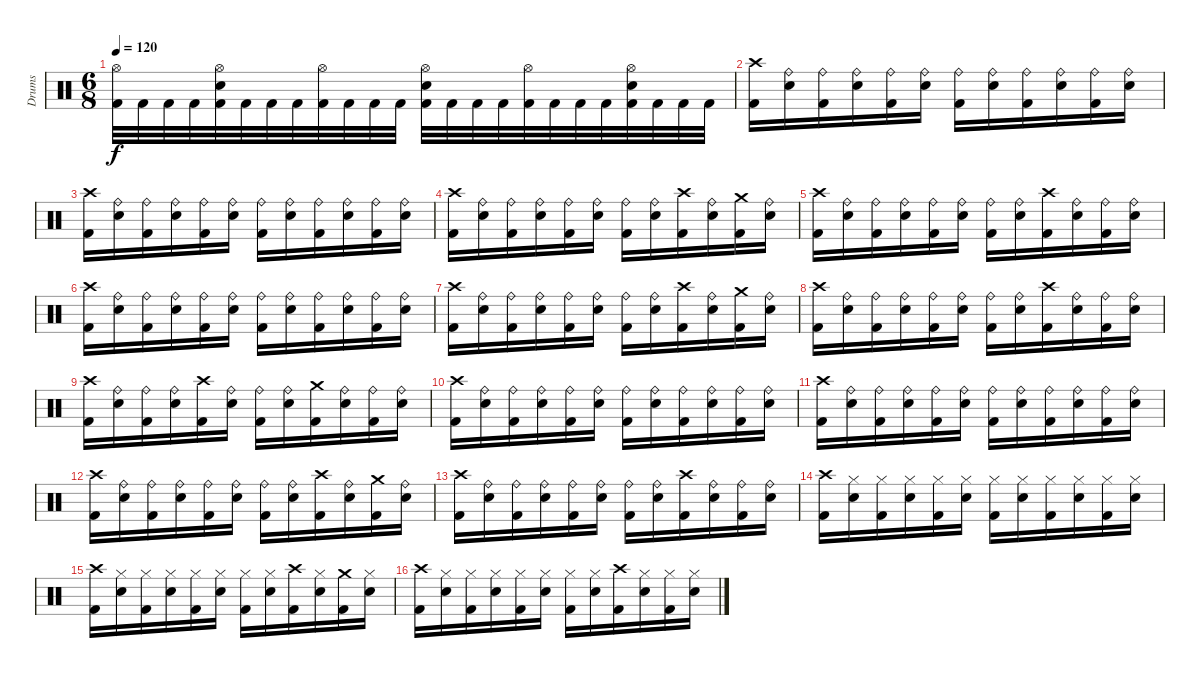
\track ("Drums" "Drums") {instrument percussion}
\staff {score}
\articulation defaults
\ts (6 8)
\tempo 120
\clef neutral
\ks c
("Hi-Hat (open)" "Kick (hit) 2").32{dy f} "Kick (hit) 2".32 "Kick (hit) 2".32 "Kick (hit) 2".32 ("Hi-Hat (open)" "Electric Snare (hit)" "Kick (hit) 2").32 "Kick (hit) 2".32 "Kick (hit) 2".32 "Kick (hit) 2".32 ("Hi-Hat (open)" "Kick (hit) 2").32 "Kick (hit) 2".32 "Kick (hit) 2".32 "Kick (hit) 2".32 ("Hi-Hat (open)" "Electric Snare (hit)" "Kick (hit) 2").32 "Kick (hit) 2".32 "Kick (hit) 2".32 "Kick (hit) 2".32 ("Hi-Hat (open)" "Kick (hit) 2").32 "Kick (hit) 2".32 "Kick (hit) 2".32 "Kick (hit) 2".32 ("Hi-Hat (open)" "Electric Snare (hit)" "Kick (hit) 2").32 "Kick (hit) 2".32 "Kick (hit) 2".32 "Kick (hit) 2".32 |
("Crash high (hit)" "Kick (hit) 2").16 ("Ride (bell)" "Electric Snare (hit)").16 ("Ride (bell)" "Kick (hit) 2").16 ("Ride (bell)" "Electric Snare (hit)").16 ("Ride (bell)" "Kick (hit) 2").16 ("Ride (bell)" "Electric Snare (hit)").16 ("Ride (bell)" "Kick (hit) 2").16 ("Ride (bell)" "Electric Snare (hit)").16 ("Ride (bell)" "Kick (hit) 2").16 ("Ride (bell)" "Electric Snare (hit)").16 ("Ride (bell)" "Kick (hit) 2").16 ("Ride (bell)" "Electric Snare (hit)").16 |
("Crash high (hit)" "Kick (hit) 2").16 ("Ride (bell)" "Electric Snare (hit)").16 ("Ride (bell)" "Kick (hit) 2").16 ("Ride (bell)" "Electric Snare (hit)").16 ("Ride (bell)" "Kick (hit) 2").16 ("Ride (bell)" "Electric Snare (hit)").16 ("Ride (bell)" "Kick (hit) 2").16 ("Ride (bell)" "Electric Snare (hit)").16 ("Ride (bell)" "Kick (hit) 2").16 ("Ride (bell)" "Electric Snare (hit)").16 ("Ride (bell)" "Kick (hit) 2").16 ("Ride (bell)" "Electric Snare (hit)").16 |
("Crash high (hit)" "Kick (hit) 2").16 ("Ride (bell)" "Electric Snare (hit)").16 ("Ride (bell)" "Kick (hit) 2").16 ("Ride (bell)" "Electric Snare (hit)").16 ("Ride (bell)" "Kick (hit) 2").16 ("Ride (bell)" "Electric Snare (hit)").16 ("Ride (bell)" "Kick (hit) 2").16 ("Ride (bell)" "Electric Snare (hit)").16 ("Crash high (hit)" "Kick (hit) 2").16 ("Ride (bell)" "Electric Snare (hit)").16 ("Crash medium (hit)" "Kick (hit) 2").16 ("Ride (bell)" "Electric Snare (hit)").16 |
("Crash high (hit)" "Kick (hit) 2").16 ("Ride (bell)" "Electric Snare (hit)").16 ("Ride (bell)" "Kick (hit) 2").16 ("Ride (bell)" "Electric Snare (hit)").16 ("Ride (bell)" "Kick (hit) 2").16 ("Ride (bell)" "Electric Snare (hit)").16 ("Ride (bell)" "Kick (hit) 2").16 ("Ride (bell)" "Electric Snare (hit)").16 ("Crash high (hit)" "Kick (hit) 2").16 ("Ride (bell)" "Electric Snare (hit)").16 ("Ride (bell)" "Kick (hit) 2").16 ("Ride (bell)" "Electric Snare (hit)").16 |
("Crash high (hit)" "Kick (hit) 2").16 ("Ride (bell)" "Electric Snare (hit)").16 ("Ride (bell)" "Kick (hit) 2").16 ("Ride (bell)" "Electric Snare (hit)").16 ("Ride (bell)" "Kick (hit) 2").16 ("Ride (bell)" "Electric Snare (hit)").16 ("Ride (bell)" "Kick (hit) 2").16 ("Ride (bell)" "Electric Snare (hit)").16 ("Ride (bell)" "Kick (hit) 2").16 ("Ride (bell)" "Electric Snare (hit)").16 ("Ride (bell)" "Kick (hit) 2").16 ("Ride (bell)" "Electric Snare (hit)").16 |
("Crash high (hit)" "Kick (hit) 2").16 ("Ride (bell)" "Electric Snare (hit)").16 ("Ride (bell)" "Kick (hit) 2").16 ("Ride (bell)" "Electric Snare (hit)").16 ("Ride (bell)" "Kick (hit) 2").16 ("Ride (bell)" "Electric Snare (hit)").16 ("Ride (bell)" "Kick (hit) 2").16 ("Ride (bell)" "Electric Snare (hit)").16 ("Crash high (hit)" "Kick (hit) 2").16 ("Ride (bell)" "Electric Snare (hit)").16 ("Crash medium (hit)" "Kick (hit) 2").16 ("Ride (bell)" "Electric Snare (hit)").16 |
("Crash high (hit)" "Kick (hit) 2").16 ("Ride (bell)" "Electric Snare (hit)").16 ("Ride (bell)" "Kick (hit) 2").16 ("Ride (bell)" "Electric Snare (hit)").16 ("Ride (bell)" "Kick (hit) 2").16 ("Ride (bell)" "Electric Snare (hit)").16 ("Ride (bell)" "Kick (hit) 2").16 ("Ride (bell)" "Electric Snare (hit)").16 ("Crash high (hit)" "Kick (hit) 2").16 ("Ride (bell)" "Electric Snare (hit)").16 ("Ride (bell)" "Kick (hit) 2").16 ("Ride (bell)" "Electric Snare (hit)").16 |
("Crash high (hit)" "Kick (hit) 2").16 ("Ride (bell)" "Electric Snare (hit)").16 ("Ride (bell)" "Kick (hit) 2").16 ("Ride (bell)" "Electric Snare (hit)").16 ("Crash high (hit)" "Kick (hit) 2").16 ("Ride (bell)" "Electric Snare (hit)").16 ("Ride (bell)" "Kick (hit) 2").16 ("Ride (bell)" "Electric Snare (hit)").16 ("Crash medium (hit)" "Kick (hit) 2").16 ("Ride (bell)" "Electric Snare (hit)").16 ("Ride (bell)" "Kick (hit) 2").16 ("Ride (bell)" "Electric Snare (hit)").16 |
("Crash high (hit)" "Kick (hit) 2").16 ("Ride (bell)" "Electric Snare (hit)").16 ("Ride (bell)" "Kick (hit) 2").16 ("Ride (bell)" "Electric Snare (hit)").16 ("Ride (bell)" "Kick (hit) 2").16 ("Ride (bell)" "Electric Snare (hit)").16 ("Ride (bell)" "Kick (hit) 2").16 ("Ride (bell)" "Electric Snare (hit)").16 ("Ride (bell)" "Kick (hit) 2").16 ("Ride (bell)" "Electric Snare (hit)").16 ("Ride (bell)" "Kick (hit) 2").16 ("Ride (bell)" "Electric Snare (hit)").16 |
("Crash high (hit)" "Kick (hit) 2").16 ("Ride (bell)" "Electric Snare (hit)").16 ("Ride (bell)" "Kick (hit) 2").16 ("Ride (bell)" "Electric Snare (hit)").16 ("Ride (bell)" "Kick (hit) 2").16 ("Ride (bell)" "Electric Snare (hit)").16 ("Ride (bell)" "Kick (hit) 2").16 ("Ride (bell)" "Electric Snare (hit)").16 ("Ride (bell)" "Kick (hit) 2").16 ("Ride (bell)" "Electric Snare (hit)").16 ("Ride (bell)" "Kick (hit) 2").16 ("Ride (bell)" "Electric Snare (hit)").16 |
("Crash high (hit)" "Kick (hit) 2").16 ("Ride (bell)" "Electric Snare (hit)").16 ("Ride (bell)" "Kick (hit) 2").16 ("Ride (bell)" "Electric Snare (hit)").16 ("Ride (bell)" "Kick (hit) 2").16 ("Ride (bell)" "Electric Snare (hit)").16 ("Ride (bell)" "Kick (hit) 2").16 ("Ride (bell)" "Electric Snare (hit)").16 ("Crash high (hit)" "Kick (hit) 2").16 ("Ride (bell)" "Electric Snare (hit)").16 ("Crash medium (hit)" "Kick (hit) 2").16 ("Ride (bell)" "Electric Snare (hit)").16 |
("Crash high (hit)" "Kick (hit) 2").16 ("Ride (bell)" "Electric Snare (hit)").16 ("Ride (bell)" "Kick (hit) 2").16 ("Ride (bell)" "Electric Snare (hit)").16 ("Ride (bell)" "Kick (hit) 2").16 ("Ride (bell)" "Electric Snare (hit)").16 ("Ride (bell)" "Kick (hit) 2").16 ("Ride (bell)" "Electric Snare (hit)").16 ("Crash high (hit)" "Kick (hit) 2").16 ("Ride (bell)" "Electric Snare (hit)").16 ("Ride (bell)" "Kick (hit) 2").16 ("Ride (bell)" "Electric Snare (hit)").16 |
("Crash high (hit)" "Kick (hit) 2").16 ("Hi-Hat (closed)" "Electric Snare (hit)").16 ("Hi-Hat (closed)" "Kick (hit) 2").16 ("Hi-Hat (closed)" "Electric Snare (hit)").16 ("Hi-Hat (closed)" "Kick (hit) 2").16 ("Hi-Hat (closed)" "Electric Snare (hit)").16 ("Hi-Hat (closed)" "Kick (hit) 2").16 ("Hi-Hat (closed)" "Electric Snare (hit)").16 ("Hi-Hat (closed)" "Kick (hit) 2").16 ("Hi-Hat (closed)" "Electric Snare (hit)").16 ("Hi-Hat (closed)" "Kick (hit) 2").16 ("Hi-Hat (closed)" "Electric Snare (hit)").16 |
("Crash high (hit)" "Kick (hit) 2").16 ("Hi-Hat (closed)" "Electric Snare (hit)").16 ("Hi-Hat (closed)" "Kick (hit) 2").16 ("Hi-Hat (closed)" "Electric Snare (hit)").16 ("Hi-Hat (closed)" "Kick (hit) 2").16 ("Hi-Hat (closed)" "Electric Snare (hit)").16 ("Hi-Hat (closed)" "Kick (hit) 2").16 ("Hi-Hat (closed)" "Electric Snare (hit)").16 ("Crash high (hit)" "Kick (hit) 2").16 ("Hi-Hat (closed)" "Electric Snare (hit)").16 ("Crash medium (hit)" "Kick (hit) 2").16 ("Hi-Hat (closed)" "Electric Snare (hit)").16 |
("Crash high (hit)" "Kick (hit) 2").16 ("Hi-Hat (closed)" "Electric Snare (hit)").16 ("Hi-Hat (closed)" "Kick (hit) 2").16 ("Hi-Hat (closed)" "Electric Snare (hit)").16 ("Hi-Hat (closed)" "Kick (hit) 2").16 ("Hi-Hat (closed)" "Electric Snare (hit)").16 ("Hi-Hat (closed)" "Kick (hit) 2").16 ("Hi-Hat (closed)" "Electric Snare (hit)").16 ("Crash high (hit)" "Kick (hit) 2").16 ("Hi-Hat (closed)" "Electric Snare (hit)").16 ("Hi-Hat (closed)" "Kick (hit) 2").16 ("Hi-Hat (closed)" "Electric Snare (hit)").16
